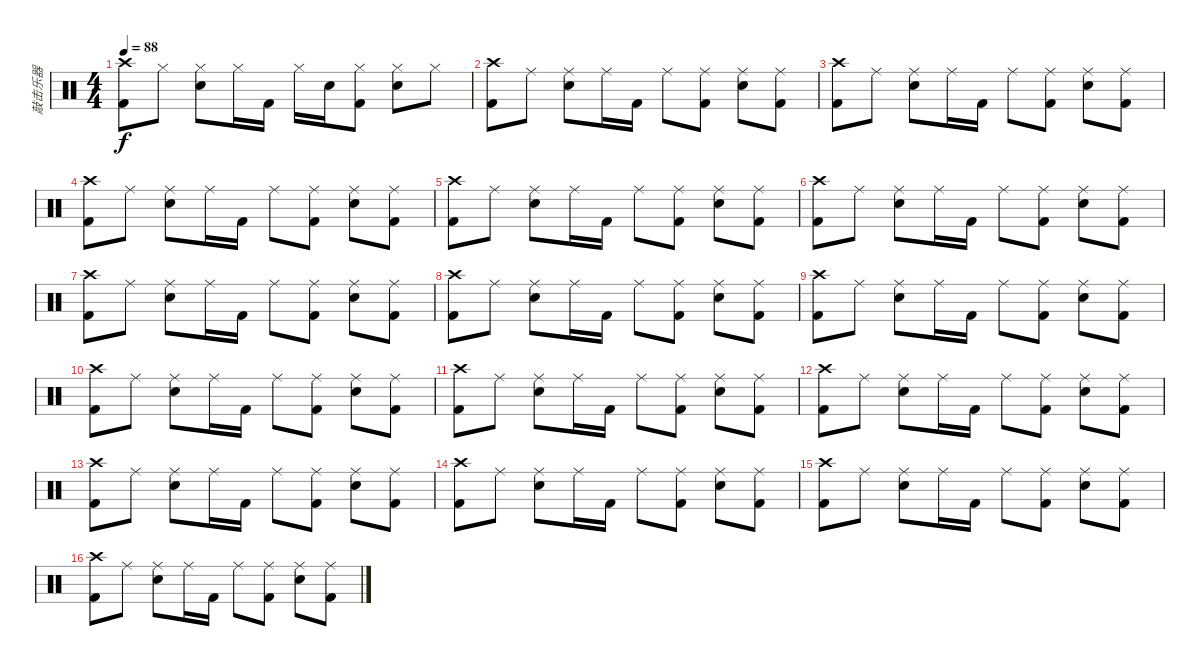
\track ("敲击乐器" "敲击乐器") {instrument percussion}
\staff {score}
\articulation defaults
\ts (4 4)
\tempo 88
\clef neutral
\ks c
("Crash high (hit)" "Kick (hit) 2").8{dy f} "Hi-Hat (closed)".8 ("Hi-Hat (closed)" "Electric Snare (hit)").8 "Hi-Hat (closed)".16 "Kick (hit) 2".16 "Hi-Hat (closed)".16 "Electric Snare (hit)".16 ("Hi-Hat (closed)" "Kick (hit) 2").8 ("Hi-Hat (closed)" "Electric Snare (hit)").8 "Hi-Hat (closed)".8 |
("Crash high (hit)" "Kick (hit) 2").8 "Ride (middle)".8 ("Ride (middle)" "Electric Snare (hit)").8 "Ride (middle)".16 "Kick (hit) 2".16 "Ride (middle)".8 ("Ride (middle)" "Kick (hit) 2").8 ("Ride (middle)" "Electric Snare (hit)").8 ("Ride (middle)" "Kick (hit) 2").8 |
("Crash high (hit)" "Kick (hit) 2").8 "Ride (middle)".8 ("Ride (middle)" "Electric Snare (hit)").8 "Ride (middle)".16 "Kick (hit) 2".16 "Ride (middle)".8 ("Ride (middle)" "Kick (hit) 2").8 ("Ride (middle)" "Electric Snare (hit)").8 ("Ride (middle)" "Kick (hit) 2").8 |
("Crash high (hit)" "Kick (hit) 2").8 "Ride (middle)".8 ("Ride (middle)" "Electric Snare (hit)").8 "Ride (middle)".16 "Kick (hit) 2".16 "Ride (middle)".8 ("Ride (middle)" "Kick (hit) 2").8 ("Ride (middle)" "Electric Snare (hit)").8 ("Ride (middle)" "Kick (hit) 2").8 |
("Crash high (hit)" "Kick (hit) 2").8 "Ride (middle)".8 ("Ride (middle)" "Electric Snare (hit)").8 "Ride (middle)".16 "Kick (hit) 2".16 "Ride (middle)".8 ("Ride (middle)" "Kick (hit) 2").8 ("Ride (middle)" "Electric Snare (hit)").8 ("Ride (middle)" "Kick (hit) 2").8 |
("Crash high (hit)" "Kick (hit) 2").8 "Ride (middle)".8 ("Ride (middle)" "Electric Snare (hit)").8 "Ride (middle)".16 "Kick (hit) 2".16 "Ride (middle)".8 ("Ride (middle)" "Kick (hit) 2").8 ("Ride (middle)" "Electric Snare (hit)").8 ("Ride (middle)" "Kick (hit) 2").8 |
("Crash high (hit)" "Kick (hit) 2").8 "Ride (middle)".8 ("Ride (middle)" "Electric Snare (hit)").8 "Ride (middle)".16 "Kick (hit) 2".16 "Ride (middle)".8 ("Ride (middle)" "Kick (hit) 2").8 ("Ride (middle)" "Electric Snare (hit)").8 ("Ride (middle)" "Kick (hit) 2").8 |
("Crash high (hit)" "Kick (hit) 2").8 "Ride (middle)".8 ("Ride (middle)" "Electric Snare (hit)").8 "Ride (middle)".16 "Kick (hit) 2".16 "Ride (middle)".8 ("Ride (middle)" "Kick (hit) 2").8 ("Ride (middle)" "Electric Snare (hit)").8 ("Ride (middle)" "Kick (hit) 2").8 |
("Crash high (hit)" "Kick (hit) 2").8 "Ride (middle)".8 ("Ride (middle)" "Electric Snare (hit)").8 "Ride (middle)".16 "Kick (hit) 2".16 "Ride (middle)".8 ("Ride (middle)" "Kick (hit) 2").8 ("Ride (middle)" "Electric Snare (hit)").8 ("Ride (middle)" "Kick (hit) 2").8 |
("Crash high (hit)" "Kick (hit) 2").8 "Ride (middle)".8 ("Ride (middle)" "Electric Snare (hit)").8 "Ride (middle)".16 "Kick (hit) 2".16 "Ride (middle)".8 ("Ride (middle)" "Kick (hit) 2").8 ("Ride (middle)" "Electric Snare (hit)").8 ("Ride (middle)" "Kick (hit) 2").8 |
("Crash high (hit)" "Kick (hit) 2").8 "Ride (middle)".8 ("Ride (middle)" "Electric Snare (hit)").8 "Ride (middle)".16 "Kick (hit) 2".16 "Ride (middle)".8 ("Ride (middle)" "Kick (hit) 2").8 ("Ride (middle)" "Electric Snare (hit)").8 ("Ride (middle)" "Kick (hit) 2").8 |
("Crash high (hit)" "Kick (hit) 2").8 "Ride (middle)".8 ("Ride (middle)" "Electric Snare (hit)").8 "Ride (middle)".16 "Kick (hit) 2".16 "Ride (middle)".8 ("Ride (middle)" "Kick (hit) 2").8 ("Ride (middle)" "Electric Snare (hit)").8 ("Ride (middle)" "Kick (hit) 2").8 |
("Crash high (hit)" "Kick (hit) 2").8 "Ride (middle)".8 ("Ride (middle)" "Electric Snare (hit)").8 "Ride (middle)".16 "Kick (hit) 2".16 "Ride (middle)".8 ("Ride (middle)" "Kick (hit) 2").8 ("Ride (middle)" "Electric Snare (hit)").8 ("Ride (middle)" "Kick (hit) 2").8 |
("Crash high (hit)" "Kick (hit) 2").8 "Ride (middle)".8 ("Ride (middle)" "Electric Snare (hit)").8 "Ride (middle)".16 "Kick (hit) 2".16 "Ride (middle)".8 ("Ride (middle)" "Kick (hit) 2").8 ("Ride (middle)" "Electric Snare (hit)").8 ("Ride (middle)" "Kick (hit) 2").8 |
("Crash high (hit)" "Kick (hit) 2").8 "Ride (middle)".8 ("Ride (middle)" "Electric Snare (hit)").8 "Ride (middle)".16 "Kick (hit) 2".16 "Ride (middle)".8 ("Ride (middle)" "Kick (hit) 2").8 ("Ride (middle)" "Electric Snare (hit)").8 ("Ride (middle)" "Kick (hit) 2").8 |
("Crash high (hit)" "Kick (hit) 2").8 "Ride (middle)".8 ("Ride (middle)" "Electric Snare (hit)").8 "Ride (middle)".16 "Kick (hit) 2".16 "Ride (middle)".8 ("Ride (middle)" "Kick (hit) 2").8 ("Ride (middle)" "Electric Snare (hit)").8 ("Ride (middle)" "Kick (hit) 2").8
